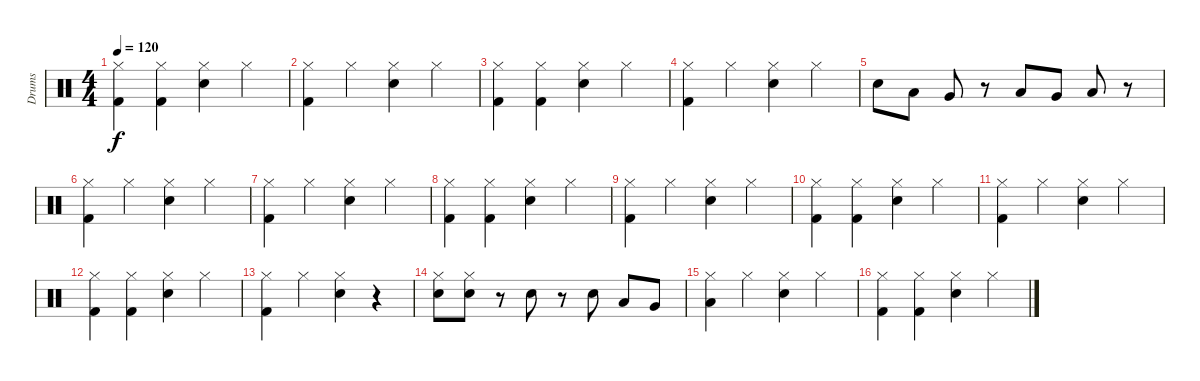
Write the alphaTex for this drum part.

\track ("Drums" "Drums") {instrument percussion}
\staff {score}
\articulation defaults
\ts (4 4)
\tempo 120
\clef neutral
\ks c
("Kick (hit) 2" "Hi-Hat (closed)").4{dy f} ("Kick (hit) 2" "Hi-Hat (closed)").4 ("Snare (hit) 2" "Hi-Hat (closed)").4 "Hi-Hat (closed)".4 |
("Kick (hit) 2" "Hi-Hat (closed)").4 "Hi-Hat (closed)".4 ("Snare (hit) 2" "Hi-Hat (closed)").4 "Hi-Hat (closed)".4 |
("Kick (hit) 2" "Hi-Hat (closed)").4 ("Kick (hit) 2" "Hi-Hat (closed)").4 ("Snare (hit) 2" "Hi-Hat (closed)").4 "Hi-Hat (closed)".4 |
("Kick (hit) 2" "Hi-Hat (closed)").4 "Hi-Hat (closed)".4 ("Snare (hit) 2" "Hi-Hat (closed)").4 "Hi-Hat (closed)".4 |
"Snare (hit) 2".8 "Low Floor Tom (hit)".8 "Very Low Tom (hit)".8 r.8 "Low Floor Tom (hit)".8 "Very Low Tom (hit)".8 "Low Tom (hit)".8 r.8 |
("Kick (hit) 2" "Hi-Hat (closed)").4 "Hi-Hat (closed)".4 ("Snare (hit) 2" "Hi-Hat (closed)").4 "Hi-Hat (closed)".4 |
("Kick (hit) 2" "Hi-Hat (closed)").4 "Hi-Hat (closed)".4 ("Snare (hit) 2" "Hi-Hat (closed)").4 "Hi-Hat (closed)".4 |
("Kick (hit) 2" "Hi-Hat (closed)").4 ("Kick (hit) 2" "Hi-Hat (closed)").4 ("Snare (hit) 2" "Hi-Hat (closed)").4 "Hi-Hat (closed)".4 |
("Kick (hit) 2" "Hi-Hat (closed)").4 "Hi-Hat (closed)".4 ("Snare (hit) 2" "Hi-Hat (closed)").4 "Hi-Hat (closed)".4 |
("Kick (hit) 2" "Hi-Hat (closed)").4 ("Kick (hit) 2" "Hi-Hat (closed)").4 ("Snare (hit) 2" "Hi-Hat (closed)").4 "Hi-Hat (closed)".4 |
("Kick (hit) 2" "Hi-Hat (closed)").4 "Hi-Hat (closed)".4 ("Snare (hit) 2" "Hi-Hat (closed)").4 "Hi-Hat (closed)".4 |
("Kick (hit) 2" "Hi-Hat (closed)").4 ("Kick (hit) 2" "Hi-Hat (closed)").4 ("Snare (hit) 2" "Hi-Hat (closed)").4 "Hi-Hat (closed)".4 |
("Kick (hit) 2" "Hi-Hat (closed)").4 "Hi-Hat (closed)".4 ("Snare (hit) 2" "Hi-Hat (closed)").4 r.4 |
("Snare (hit) 2" "Hi-Hat (closed)").8 ("Snare (hit) 2" "Hi-Hat (closed)").8 r.8 "Snare (hit) 2".8 r.8 "Snare (hit) 2".8 "Low Floor Tom (hit)".8 "Very Low Tom (hit)".8 |
("Low Tom (hit)" "Hi-Hat (closed)").4 "Hi-Hat (closed)".4 ("Snare (hit) 2" "Hi-Hat (closed)").4 "Hi-Hat (closed)".4 |
("Kick (hit) 2" "Hi-Hat (closed)").4 ("Kick (hit) 2" "Hi-Hat (closed)").4 ("Snare (hit) 2" "Hi-Hat (closed)").4 "Hi-Hat (closed)".4
